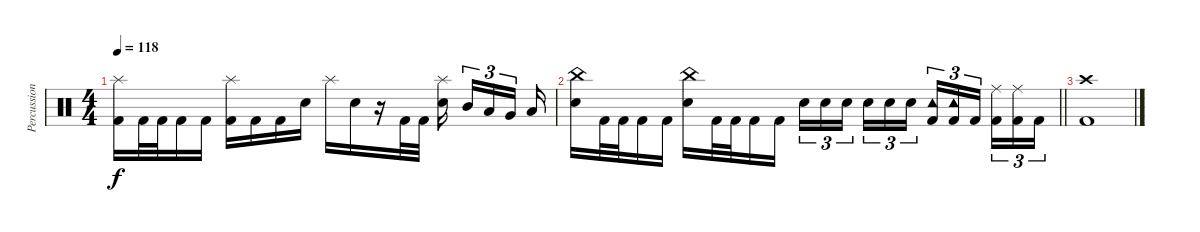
\track ("Percussions" "Percussion") {instrument percussion}
\staff {score}
\articulation defaults
\ts (4 4)
\tempo 118
\clef neutral
\ks c
("Splash (hit)" "Kick (hit) 2").16{dy f} "Kick (hit) 2".32 "Kick (hit) 2".32 "Kick (hit) 2".16 "Kick (hit) 2".16 ("Splash (hit)" "Kick (hit) 2").16 "Kick (hit) 2".16 "Kick (hit) 2".16 "Electric Snare (hit)".16 "Splash (hit)".16 "Electric Snare (hit)".16 r.16 "Kick (hit) 2".32 "Kick (hit) 2".32 ("Splash (hit)" "Electric Snare (hit)").16{beam splitsecondary} "Mid Tom (hit)".16{tu (3 2)} "Low Tom (hit)".16{tu (3 2)} "Very Low Tom (hit)".16{tu (3 2) beam splitsecondary} "Low Floor Tom (hit)".16 |
\barLineRight lightlight
("China (hit)" "Electric Snare (hit)").16 "Kick (hit) 2".32 "Kick (hit) 2".32 "Kick (hit) 2".16 "Kick (hit) 2".16 ("China (hit)" "Electric Snare (hit)").16 "Kick (hit) 2".32 "Kick (hit) 2".32 "Kick (hit) 2".16 "Kick (hit) 2".16 "Electric Snare (hit)".16{tu (3 2)} "Electric Snare (hit)".16{tu (3 2)} "Electric Snare (hit)".16{tu (3 2) beam splitsecondary} "Electric Snare (hit)".16{tu (3 2)} "Electric Snare (hit)".16{tu (3 2)} "Electric Snare (hit)".16{tu (3 2)} ("Tambourine (hit)" "Kick (hit) 2").16{tu (3 2)} ("Tambourine (hit)" "Kick (hit) 2").16{tu (3 2)} "Kick (hit) 2".16{tu (3 2) beam splitsecondary} ("Ride (middle)" "Kick (hit) 2").16{tu (3 2)} ("Ride (middle)" "Kick (hit) 2").16{tu (3 2)} "Kick (hit) 2".16{tu (3 2)} |
\section ("" "")
("Crash high (hit)" "Kick (hit) 2").1
